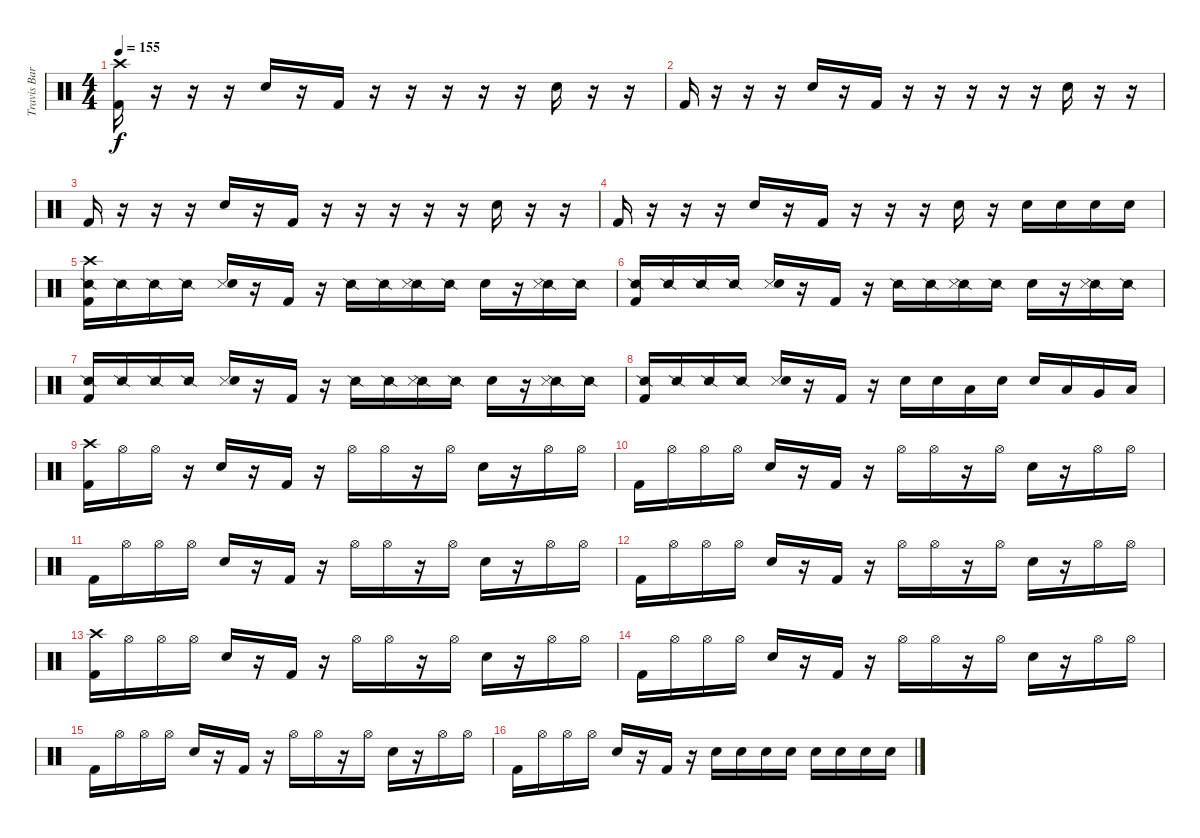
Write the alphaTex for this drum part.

\track ("Travis Barker Drums" "Travis Bar") {instrument percussion}
\staff {score}
\articulation defaults
\ts (4 4)
\tempo 155
\clef neutral
\ks c
("Crash high (hit)" "Kick (hit) 2").16{dy f} r.16 r.16 r.16 "Snare (hit) 2".16 r.16 "Kick (hit) 2".16 r.16 r.16 r.16 r.16 r.16 "Snare (hit) 2".16 r.16 r.16 |
"Kick (hit) 2".16 r.16 r.16 r.16 "Snare (hit) 2".16 r.16 "Kick (hit) 2".16 r.16 r.16 r.16 r.16 r.16 "Snare (hit) 2".16 r.16 r.16 |
"Kick (hit) 2".16 r.16 r.16 r.16 "Snare (hit) 2".16 r.16 "Kick (hit) 2".16 r.16 r.16 r.16 r.16 r.16 "Snare (hit) 2".16 r.16 r.16 |
"Kick (hit) 2".16 r.16 r.16 r.16 "Snare (hit) 2".16 r.16 "Kick (hit) 2".16 r.16 r.16 r.16 "Snare (hit) 2".16 r.16 "Snare (hit) 2".16 "Snare (hit) 2".16 "Snare (hit) 2".16 "Snare (hit) 2".16 |
("Snare (side stick) 2" "Crash high (hit)" "Kick (hit) 2").16 "Snare (side stick) 2".16 "Snare (side stick) 2".16 "Snare (side stick) 2".16 ("Snare (side stick) 3" "Snare (hit) 2").16 r.16 "Kick (hit) 2".16 r.16 "Snare (side stick) 2".16 "Snare (side stick) 2".16 ("Snare (side stick) 2" "Snare (side stick) 3").16 "Snare (side stick) 2".16 "Snare (hit) 2".16 r.16 ("Snare (side stick) 2" "Snare (side stick) 3").16 "Snare (side stick) 2".16 |
("Snare (side stick) 2" "Kick (hit) 2").16 "Snare (side stick) 2".16 "Snare (side stick) 2".16 "Snare (side stick) 2".16 ("Snare (side stick) 3" "Snare (hit) 2").16 r.16 "Kick (hit) 2".16 r.16 "Snare (side stick) 2".16 "Snare (side stick) 2".16 ("Snare (side stick) 2" "Snare (side stick) 3").16 "Snare (side stick) 2".16 "Snare (hit) 2".16 r.16 ("Snare (side stick) 2" "Snare (side stick) 3").16 "Snare (side stick) 2".16 |
("Snare (side stick) 2" "Kick (hit) 2").16 "Snare (side stick) 2".16 "Snare (side stick) 2".16 "Snare (side stick) 2".16 ("Snare (side stick) 3" "Snare (hit) 2").16 r.16 "Kick (hit) 2".16 r.16 "Snare (side stick) 2".16 "Snare (side stick) 2".16 ("Snare (side stick) 2" "Snare (side stick) 3").16 "Snare (side stick) 2".16 "Snare (hit) 2".16 r.16 ("Snare (side stick) 2" "Snare (side stick) 3").16 "Snare (side stick) 2".16 |
("Snare (side stick) 2" "Kick (hit) 2").16 "Snare (side stick) 2".16 "Snare (side stick) 2".16 "Snare (side stick) 2".16 ("Snare (side stick) 3" "Snare (hit) 2").16 r.16 "Kick (hit) 2".16 r.16 "Snare (hit) 2".16 "Snare (hit) 2".16 "Low Tom (hit)".16 "Snare (hit) 2".16 "Snare (hit) 2".16 "Low Tom (hit)".16 "Very Low Tom (hit)".16 "Low Floor Tom (hit)".16 |
("Crash high (hit)" "Kick (hit) 2").16 "Hi-Hat (open)".16 "Hi-Hat (open)".16 r.16 "Snare (hit) 2".16 r.16 "Kick (hit) 2".16 r.16 "Hi-Hat (open)".16 "Hi-Hat (open)".16 r.16 "Hi-Hat (open)".16 "Snare (hit) 2".16 r.16 "Hi-Hat (open)".16 "Hi-Hat (open)".16 |
"Kick (hit) 2".16 "Hi-Hat (open)".16 "Hi-Hat (open)".16 "Hi-Hat (open)".16 "Snare (hit) 2".16 r.16 "Kick (hit) 2".16 r.16 "Hi-Hat (open)".16 "Hi-Hat (open)".16 r.16 "Hi-Hat (open)".16 "Snare (hit) 2".16 r.16 "Hi-Hat (open)".16 "Hi-Hat (open)".16 |
"Kick (hit) 2".16 "Hi-Hat (open)".16 "Hi-Hat (open)".16 "Hi-Hat (open)".16 "Snare (hit) 2".16 r.16 "Kick (hit) 2".16 r.16 "Hi-Hat (open)".16 "Hi-Hat (open)".16 r.16 "Hi-Hat (open)".16 "Snare (hit) 2".16 r.16 "Hi-Hat (open)".16 "Hi-Hat (open)".16 |
"Kick (hit) 2".16 "Hi-Hat (open)".16 "Hi-Hat (open)".16 "Hi-Hat (open)".16 "Snare (hit) 2".16 r.16 "Kick (hit) 2".16 r.16 "Hi-Hat (open)".16 "Hi-Hat (open)".16 r.16 "Hi-Hat (open)".16 "Snare (hit) 2".16 r.16 "Hi-Hat (open)".16 "Hi-Hat (open)".16 |
("Crash high (hit)" "Kick (hit) 2").16 "Hi-Hat (open)".16 "Hi-Hat (open)".16 "Hi-Hat (open)".16 "Snare (hit) 2".16 r.16 "Kick (hit) 2".16 r.16 "Hi-Hat (open)".16 "Hi-Hat (open)".16 r.16 "Hi-Hat (open)".16 "Snare (hit) 2".16 r.16 "Hi-Hat (open)".16 "Hi-Hat (open)".16 |
"Kick (hit) 2".16 "Hi-Hat (open)".16 "Hi-Hat (open)".16 "Hi-Hat (open)".16 "Snare (hit) 2".16 r.16 "Kick (hit) 2".16 r.16 "Hi-Hat (open)".16 "Hi-Hat (open)".16 r.16 "Hi-Hat (open)".16 "Snare (hit) 2".16 r.16 "Hi-Hat (open)".16 "Hi-Hat (open)".16 |
"Kick (hit) 2".16 "Hi-Hat (open)".16 "Hi-Hat (open)".16 "Hi-Hat (open)".16 "Snare (hit) 2".16 r.16 "Kick (hit) 2".16 r.16 "Hi-Hat (open)".16 "Hi-Hat (open)".16 r.16 "Hi-Hat (open)".16 "Snare (hit) 2".16 r.16 "Hi-Hat (open)".16 "Hi-Hat (open)".16 |
"Kick (hit) 2".16 "Hi-Hat (open)".16 "Hi-Hat (open)".16 "Hi-Hat (open)".16 "Snare (hit) 2".16 r.16 "Kick (hit) 2".16 r.16 "Snare (hit) 2".16 "Snare (hit) 2".16 "Snare (hit) 2".16 "Snare (hit) 2".16 "Snare (hit) 2".16 "Snare (hit) 2".16 "Snare (hit) 2".16 "Snare (hit) 2".16
